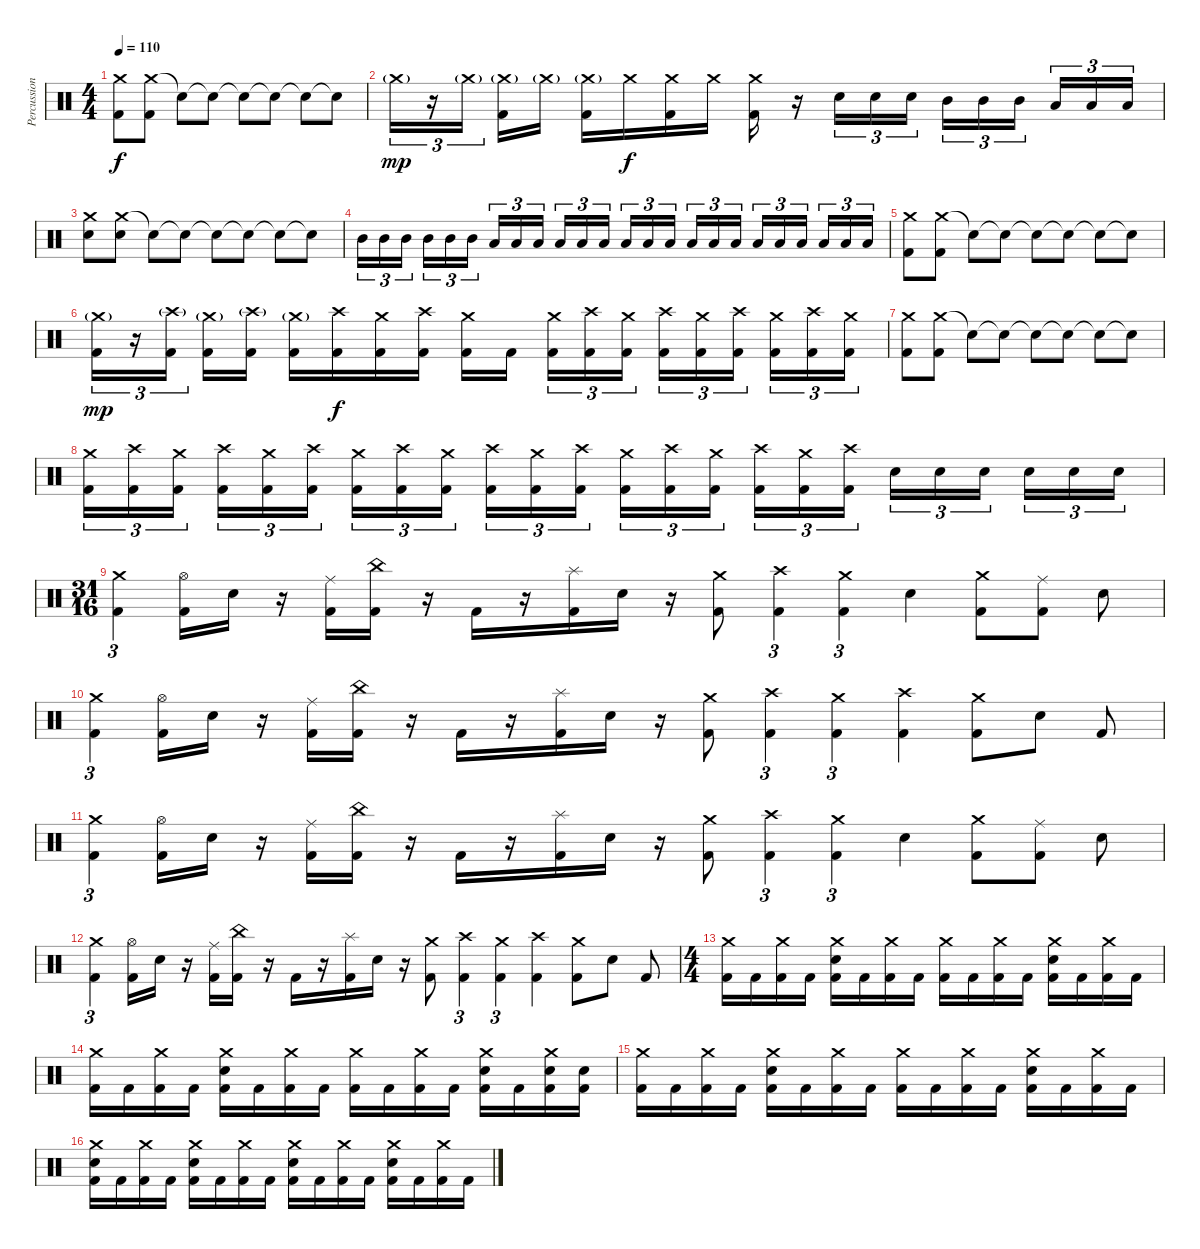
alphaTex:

\track ("Percussion" "Percussion") {instrument percussion}
\staff {score}
\articulation defaults
\ts (4 4)
\tempo 110
\clef neutral
\ks c
("Crash medium (hit)" "Kick (hit) 2").8{dy f} ("Crash medium (hit)" "Kick (hit) 2").8 "Snare (hit)"{t}.8 "Snare (hit)"{t}.8 "Snare (hit)"{t}.8 "Snare (hit)"{t}.8 "Snare (hit)"{t}.8 "Snare (hit)"{t}.8 |
"Crash medium (hit)"{g}.16{tu (3 2) dy mp} r.16{tu (3 2)} "Crash medium (hit)"{g}.16{tu (3 2) beam splitsecondary} ("Kick (hit) 2" "Crash medium (hit)"{g}).16 "Crash medium (hit)"{g}.16 ("Kick (hit) 2" "Crash medium (hit)"{g}).16 "Crash medium (hit)".16{dy f} ("Kick (hit) 2" "Crash medium (hit)").16 "Crash medium (hit)".16 ("Kick (hit) 2" "Crash medium (hit)").16 r.16 "Electric Snare (hit)".16{tu (3 2)} "Electric Snare (hit)".16{tu (3 2)} "Electric Snare (hit)".16{tu (3 2)} "Mid Tom (hit)".16{tu (3 2)} "Mid Tom (hit)".16{tu (3 2)} "Mid Tom (hit)".16{tu (3 2) beam splitsecondary} "Low Tom (hit)".16{tu (3 2)} "Low Tom (hit)".16{tu (3 2)} "Low Tom (hit)".16{tu (3 2)} |
("Crash medium (hit)" "Electric Snare (hit)").8 ("Crash medium (hit)" "Electric Snare (hit)").8 "Snare (hit)"{t}.8 "Snare (hit)"{t}.8 "Snare (hit)"{t}.8 "Snare (hit)"{t}.8 "Snare (hit)"{t}.8 "Snare (hit)"{t}.8 |
"Mid Tom (hit)".16{tu (3 2)} "Mid Tom (hit)".16{tu (3 2)} "Mid Tom (hit)".16{tu (3 2) beam splitsecondary} "Mid Tom (hit)".16{tu (3 2)} "Mid Tom (hit)".16{tu (3 2)} "Mid Tom (hit)".16{tu (3 2)} "Low Tom (hit)".16{tu (3 2)} "Low Tom (hit)".16{tu (3 2)} "Low Tom (hit)".16{tu (3 2) beam splitsecondary} "Low Tom (hit)".16{tu (3 2)} "Low Tom (hit)".16{tu (3 2)} "Low Tom (hit)".16{tu (3 2)} "Low Floor Tom (hit)".16{tu (3 2)} "Low Floor Tom (hit)".16{tu (3 2)} "Low Floor Tom (hit)".16{tu (3 2) beam splitsecondary} "Low Floor Tom (hit)".16{tu (3 2)} "Low Floor Tom (hit)".16{tu (3 2)} "Low Floor Tom (hit)".16{tu (3 2)} "Low Floor Tom (hit)".16{tu (3 2)} "Low Floor Tom (hit)".16{tu (3 2)} "Low Floor Tom (hit)".16{tu (3 2) beam splitsecondary} "Low Floor Tom (hit)".16{tu (3 2)} "Low Floor Tom (hit)".16{tu (3 2)} "Low Floor Tom (hit)".16{tu (3 2)} |
("Crash medium (hit)" "Kick (hit) 2").8 ("Crash medium (hit)" "Kick (hit) 2").8 "Snare (hit)"{t}.8 "Snare (hit)"{t}.8 "Snare (hit)"{t}.8 "Snare (hit)"{t}.8 "Snare (hit)"{t}.8 "Snare (hit)"{t}.8 |
("Kick (hit) 2" "Crash medium (hit)"{g}).16{tu (3 2) dy mp} r.16{tu (3 2)} ("Kick (hit) 2" "Crash high (hit)"{g}).16{tu (3 2) beam splitsecondary} ("Kick (hit) 2" "Crash medium (hit)"{g}).16 ("Kick (hit) 2" "Crash high (hit)"{g}).16 ("Kick (hit) 2" "Crash medium (hit)"{g}).16 ("Kick (hit) 2" "Crash high (hit)").16{dy f} ("Kick (hit) 2" "Crash medium (hit)").16 ("Kick (hit) 2" "Crash high (hit)").16 ("Kick (hit) 2" "Crash medium (hit)").16 "Kick (hit) 2".16{beam splitsecondary} ("Kick (hit) 2" "Crash medium (hit)").16{tu (3 2)} ("Kick (hit) 2" "Crash high (hit)").16{tu (3 2)} ("Kick (hit) 2" "Crash medium (hit)").16{tu (3 2)} ("Kick (hit) 2" "Crash high (hit)").16{tu (3 2)} ("Kick (hit) 2" "Crash medium (hit)").16{tu (3 2)} ("Kick (hit) 2" "Crash high (hit)").16{tu (3 2) beam splitsecondary} ("Kick (hit) 2" "Crash medium (hit)").16{tu (3 2)} ("Kick (hit) 2" "Crash high (hit)").16{tu (3 2)} ("Kick (hit) 2" "Crash medium (hit)").16{tu (3 2)} |
("Crash medium (hit)" "Kick (hit) 2").8 ("Crash medium (hit)" "Kick (hit) 2").8 "Snare (hit)"{t}.8 "Snare (hit)"{t}.8 "Snare (hit)"{t}.8 "Snare (hit)"{t}.8 "Snare (hit)"{t}.8 "Snare (hit)"{t}.8 |
("Crash medium (hit)" "Kick (hit) 2").16{tu (3 2)} ("Crash high (hit)" "Kick (hit) 2").16{tu (3 2)} ("Crash medium (hit)" "Kick (hit) 2").16{tu (3 2) beam splitsecondary} ("Crash high (hit)" "Kick (hit) 2").16{tu (3 2)} ("Crash medium (hit)" "Kick (hit) 2").16{tu (3 2)} ("Crash high (hit)" "Kick (hit) 2").16{tu (3 2)} ("Crash medium (hit)" "Kick (hit) 2").16{tu (3 2)} ("Crash high (hit)" "Kick (hit) 2").16{tu (3 2)} ("Crash medium (hit)" "Kick (hit) 2").16{tu (3 2) beam splitsecondary} ("Crash high (hit)" "Kick (hit) 2").16{tu (3 2)} ("Crash medium (hit)" "Kick (hit) 2").16{tu (3 2)} ("Crash high (hit)" "Kick (hit) 2").16{tu (3 2)} ("Crash medium (hit)" "Kick (hit) 2").16{tu (3 2)} ("Crash high (hit)" "Kick (hit) 2").16{tu (3 2)} ("Crash medium (hit)" "Kick (hit) 2").16{tu (3 2) beam splitsecondary} ("Crash high (hit)" "Kick (hit) 2").16{tu (3 2)} ("Crash medium (hit)" "Kick (hit) 2").16{tu (3 2)} ("Crash high (hit)" "Kick (hit) 2").16{tu (3 2)} "Electric Snare (hit)".16{tu (3 2)} "Electric Snare (hit)".16{tu (3 2)} "Electric Snare (hit)".16{tu (3 2) beam splitsecondary} "Electric Snare (hit)".16{tu (3 2)} "Electric Snare (hit)".16{tu (3 2)} "Electric Snare (hit)".16{tu (3 2)} |
\ts (31 16)
("Crash medium (hit)" "Kick (hit) 2").4{tu (3 2)} ("Hi-Hat (open)" "Kick (hit) 2").16 "Electric Snare (hit)".16 r.16 ("Ride (middle)" "Kick (hit) 2").16 ("China (hit)" "Kick (hit) 2").16 r.16 "Kick (hit) 2".16 r.16 ("Splash (hit)" "Kick (hit) 2").16 "Electric Snare (hit)".16 r.16 ("Crash medium (hit)" "Kick (hit) 2").8 ("Crash high (hit)" "Kick (hit) 2").4{tu (3 2)} ("Crash medium (hit)" "Kick (hit) 2").4{tu (3 2)} "Electric Snare (hit)".4 ("Crash medium (hit)" "Kick (hit) 2").8 ("Ride (middle)" "Kick (hit) 2").8 "Electric Snare (hit)".8 |
("Crash medium (hit)" "Kick (hit) 2").4{tu (3 2)} ("Hi-Hat (open)" "Kick (hit) 2").16 "Electric Snare (hit)".16 r.16 ("Ride (middle)" "Kick (hit) 2").16 ("China (hit)" "Kick (hit) 2").16 r.16 "Kick (hit) 2".16 r.16 ("Splash (hit)" "Kick (hit) 2").16 "Electric Snare (hit)".16 r.16 ("Crash medium (hit)" "Kick (hit) 2").8 ("Crash high (hit)" "Kick (hit) 2").4{tu (3 2)} ("Crash medium (hit)" "Kick (hit) 2").4{tu (3 2)} ("Crash high (hit)" "Kick (hit) 2").4 ("Crash medium (hit)" "Kick (hit) 2").8 "Electric Snare (hit)".8 "Kick (hit) 2".8 |
("Crash medium (hit)" "Kick (hit) 2").4{tu (3 2)} ("Hi-Hat (open)" "Kick (hit) 2").16 "Electric Snare (hit)".16 r.16 ("Ride (middle)" "Kick (hit) 2").16 ("China (hit)" "Kick (hit) 2").16 r.16 "Kick (hit) 2".16 r.16 ("Splash (hit)" "Kick (hit) 2").16 "Electric Snare (hit)".16 r.16 ("Crash medium (hit)" "Kick (hit) 2").8 ("Crash high (hit)" "Kick (hit) 2").4{tu (3 2)} ("Crash medium (hit)" "Kick (hit) 2").4{tu (3 2)} "Electric Snare (hit)".4 ("Crash medium (hit)" "Kick (hit) 2").8 ("Ride (middle)" "Kick (hit) 2").8 "Electric Snare (hit)".8 |
("Crash medium (hit)" "Kick (hit) 2").4{tu (3 2)} ("Hi-Hat (open)" "Kick (hit) 2").16 "Electric Snare (hit)".16 r.16 ("Ride (middle)" "Kick (hit) 2").16 ("China (hit)" "Kick (hit) 2").16 r.16 "Kick (hit) 2".16 r.16 ("Splash (hit)" "Kick (hit) 2").16 "Electric Snare (hit)".16 r.16 ("Crash medium (hit)" "Kick (hit) 2").8 ("Crash high (hit)" "Kick (hit) 2").4{tu (3 2)} ("Crash medium (hit)" "Kick (hit) 2").4{tu (3 2)} ("Crash high (hit)" "Kick (hit) 2").4 ("Crash medium (hit)" "Kick (hit) 2").8 "Electric Snare (hit)".8 "Kick (hit) 2".8 |
\ts (4 4)
("Crash medium (hit)" "Kick (hit) 2").16 "Kick (hit) 2".16 ("Crash medium (hit)" "Kick (hit) 2").16 "Kick (hit) 2".16 ("Electric Snare (hit)" "Crash medium (hit)" "Kick (hit) 2").16 "Kick (hit) 2".16 ("Crash medium (hit)" "Kick (hit) 2").16 "Kick (hit) 2".16 ("Crash medium (hit)" "Kick (hit) 2").16 "Kick (hit) 2".16 ("Crash medium (hit)" "Kick (hit) 2").16 "Kick (hit) 2".16 ("Electric Snare (hit)" "Crash medium (hit)" "Kick (hit) 2").16 "Kick (hit) 2".16 ("Crash medium (hit)" "Kick (hit) 2").16 "Kick (hit) 2".16 |
("Crash medium (hit)" "Kick (hit) 2").16 "Kick (hit) 2".16 ("Crash medium (hit)" "Kick (hit) 2").16 "Kick (hit) 2".16 ("Electric Snare (hit)" "Crash medium (hit)" "Kick (hit) 2").16 "Kick (hit) 2".16 ("Crash medium (hit)" "Kick (hit) 2").16 "Kick (hit) 2".16 ("Crash medium (hit)" "Kick (hit) 2").16 "Kick (hit) 2".16 ("Crash medium (hit)" "Kick (hit) 2").16 "Kick (hit) 2".16 ("Electric Snare (hit)" "Crash medium (hit)" "Kick (hit) 2").16 "Kick (hit) 2".16 ("Electric Snare (hit)" "Crash medium (hit)" "Kick (hit) 2").16 ("Electric Snare (hit)" "Kick (hit) 2").16 |
("Crash medium (hit)" "Kick (hit) 2").16 "Kick (hit) 2".16 ("Crash medium (hit)" "Kick (hit) 2").16 "Kick (hit) 2".16 ("Electric Snare (hit)" "Crash medium (hit)" "Kick (hit) 2").16 "Kick (hit) 2".16 ("Crash medium (hit)" "Kick (hit) 2").16 "Kick (hit) 2".16 ("Crash medium (hit)" "Kick (hit) 2").16 "Kick (hit) 2".16 ("Crash medium (hit)" "Kick (hit) 2").16 "Kick (hit) 2".16 ("Electric Snare (hit)" "Crash medium (hit)" "Kick (hit) 2").16 "Kick (hit) 2".16 ("Crash medium (hit)" "Kick (hit) 2").16 "Kick (hit) 2".16 |
("Electric Snare (hit)" "Crash medium (hit)" "Kick (hit) 2").16 "Kick (hit) 2".16 ("Crash medium (hit)" "Kick (hit) 2").16 "Kick (hit) 2".16 ("Electric Snare (hit)" "Crash medium (hit)" "Kick (hit) 2").16 "Kick (hit) 2".16 ("Crash medium (hit)" "Kick (hit) 2").16 "Kick (hit) 2".16 ("Electric Snare (hit)" "Crash medium (hit)" "Kick (hit) 2").16 "Kick (hit) 2".16 ("Crash medium (hit)" "Kick (hit) 2").16 "Kick (hit) 2".16 ("Electric Snare (hit)" "Crash medium (hit)" "Kick (hit) 2").16 "Kick (hit) 2".16 ("Crash medium (hit)" "Kick (hit) 2").16 "Kick (hit) 2".16
